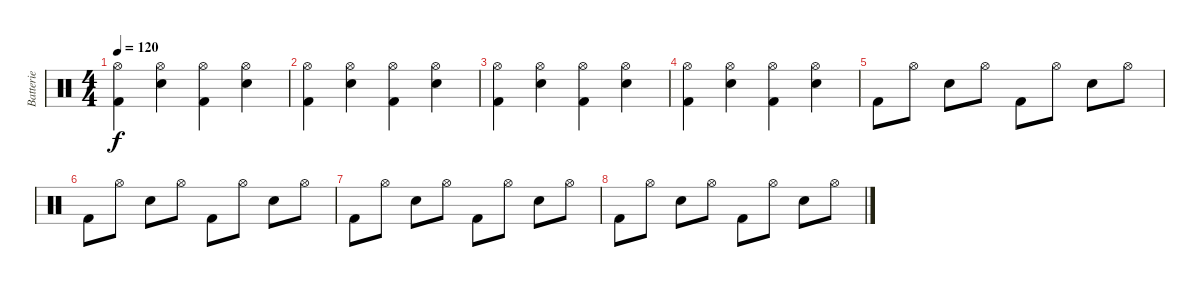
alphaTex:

\track ("Batterie" "Batterie") {instrument percussion}
\staff {score}
\articulation defaults
\ts (4 4)
\tempo 120
\clef neutral
\ks c
("Hi-Hat (open)" "Kick (hit) 2").4{dy f} ("Hi-Hat (open)" "Snare (hit) 2").4 ("Hi-Hat (open)" "Kick (hit) 2").4 ("Hi-Hat (open)" "Snare (hit) 2").4 |
("Hi-Hat (open)" "Kick (hit) 2").4 ("Hi-Hat (open)" "Snare (hit) 2").4 ("Hi-Hat (open)" "Kick (hit) 2").4 ("Hi-Hat (open)" "Snare (hit) 2").4 |
("Hi-Hat (open)" "Kick (hit) 2").4 ("Hi-Hat (open)" "Snare (hit) 2").4 ("Hi-Hat (open)" "Kick (hit) 2").4 ("Hi-Hat (open)" "Snare (hit) 2").4 |
("Hi-Hat (open)" "Kick (hit) 2").4 ("Hi-Hat (open)" "Snare (hit) 2").4 ("Hi-Hat (open)" "Kick (hit) 2").4 ("Hi-Hat (open)" "Snare (hit) 2").4 |
"Kick (hit) 2".8 "Hi-Hat (open)".8 "Snare (hit) 2".8 "Hi-Hat (open)".8 "Kick (hit) 2".8 "Hi-Hat (open)".8 "Snare (hit) 2".8 "Hi-Hat (open)".8 |
"Kick (hit) 2".8 "Hi-Hat (open)".8 "Snare (hit) 2".8 "Hi-Hat (open)".8 "Kick (hit) 2".8 "Hi-Hat (open)".8 "Snare (hit) 2".8 "Hi-Hat (open)".8 |
"Kick (hit) 2".8 "Hi-Hat (open)".8 "Snare (hit) 2".8 "Hi-Hat (open)".8 "Kick (hit) 2".8 "Hi-Hat (open)".8 "Snare (hit) 2".8 "Hi-Hat (open)".8 |
"Kick (hit) 2".8 "Hi-Hat (open)".8 "Snare (hit) 2".8 "Hi-Hat (open)".8 "Kick (hit) 2".8 "Hi-Hat (open)".8 "Snare (hit) 2".8 "Hi-Hat (open)".8
